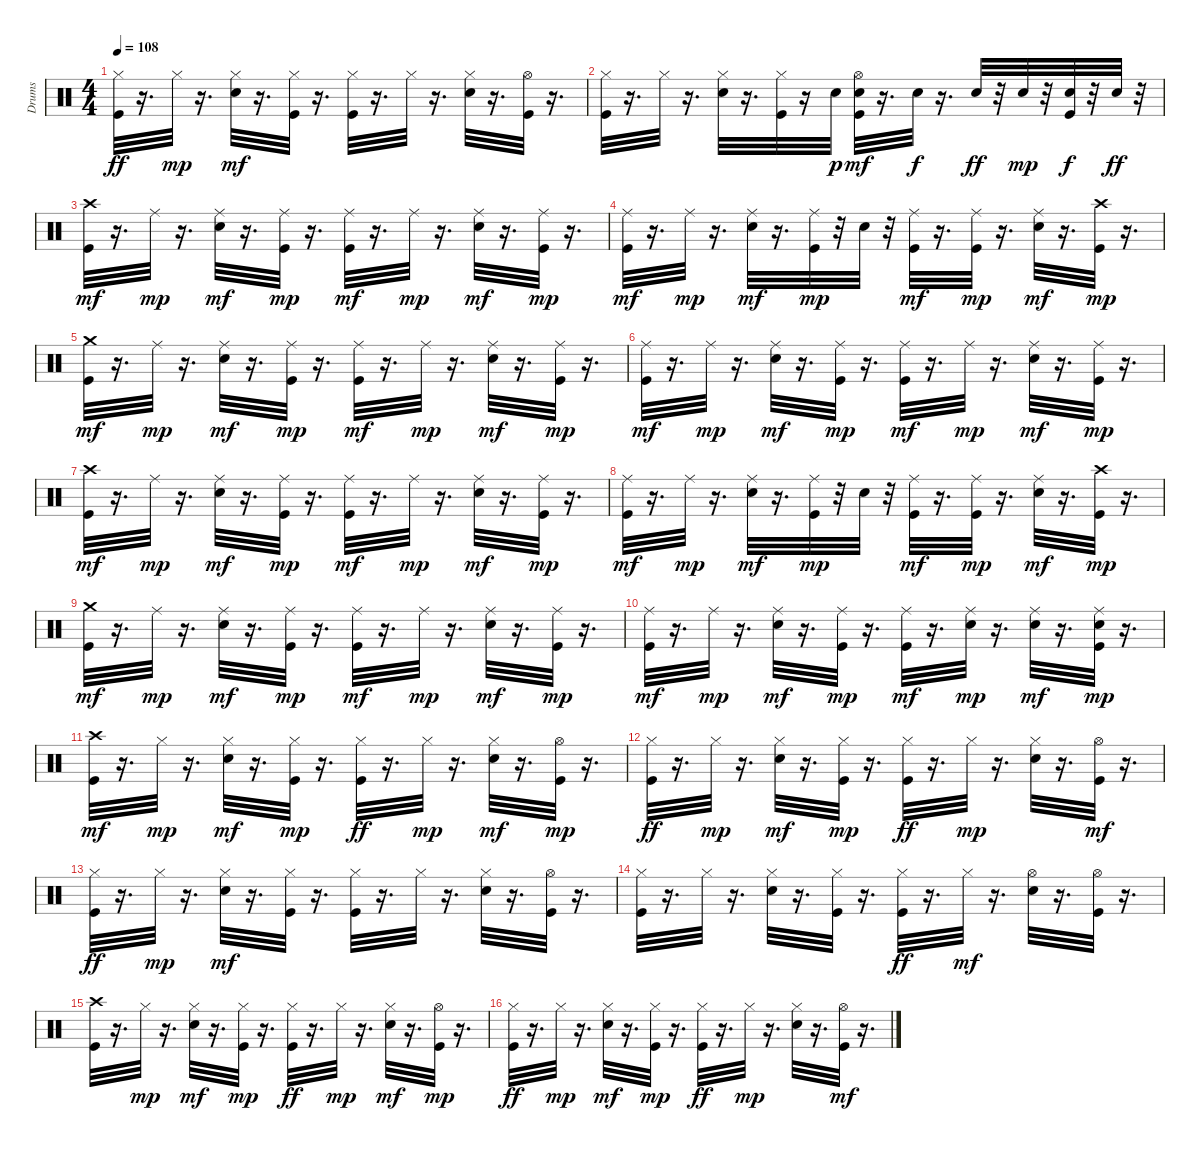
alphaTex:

\track ("Drums" "Drums") {instrument percussion}
\staff {score}
\articulation defaults
\ts (4 4)
\tempo 108
\clef neutral
\ks c
("Kick (hit)" "Hi-Hat (closed)").32{dy ff} r.16{d} "Hi-Hat (closed)".32{dy mp} r.16{d} ("Electric Snare (hit)" "Hi-Hat (closed)").32{dy mf} r.16{d} ("Kick (hit)" "Hi-Hat (closed)").32 r.16{d} ("Kick (hit)" "Hi-Hat (closed)").32 r.16{d} "Hi-Hat (closed)".32 r.16{d} ("Electric Snare (hit)" "Hi-Hat (closed)").32 r.16{d} ("Kick (hit)" "Hi-Hat (open)").32 r.16{d} |
("Kick (hit)" "Hi-Hat (closed)").32 r.16{d} "Hi-Hat (closed)".32 r.16{d} ("Electric Snare (hit)" "Hi-Hat (closed)").32 r.16{d} ("Kick (hit)" "Hi-Hat (closed)").32 r.16 "Electric Snare (hit)".32{dy p} ("Kick (hit)" "Electric Snare (hit)" "Hi-Hat (open)").32{dy mf} r.16{d} "Electric Snare (hit)".32{dy f} r.16{d} "Electric Snare (hit)".32{dy ff} r.32 "Electric Snare (hit)".32{dy mp} r.32 ("Kick (hit)" "Electric Snare (hit)").32{dy f} r.32 "Electric Snare (hit)".32{dy ff} r.32 |
("Kick (hit)" "Crash high (hit)").32{dy mf} r.16{d} "Ride (middle)".32{dy mp} r.16{d} ("Electric Snare (hit)" "Ride (middle)").32{dy mf} r.16{d} ("Kick (hit)" "Ride (middle)").32{dy mp} r.16{d} ("Kick (hit)" "Ride (middle)").32{dy mf} r.16{d} "Ride (middle)".32{dy mp} r.16{d} ("Electric Snare (hit)" "Ride (middle)").32{dy mf} r.16{d} ("Kick (hit)" "Ride (middle)").32{dy mp} r.16{d} |
("Kick (hit)" "Ride (middle)").32{dy mf} r.16{d} "Ride (middle)".32{dy mp} r.16{d} ("Electric Snare (hit)" "Ride (middle)").32{dy mf} r.16{d} ("Kick (hit)" "Ride (middle)").32{dy mp} r.32 "Electric Snare (hit)".32 r.32 ("Kick (hit)" "Ride (middle)").32{dy mf} r.16{d} ("Kick (hit)" "Ride (middle)").32{dy mp} r.16{d} ("Electric Snare (hit)" "Ride (middle)").32{dy mf} r.16{d} ("Kick (hit)" "Crash high (hit)").32{dy mp} r.16{d} |
("Kick (hit)" "Crash medium (hit)").32{dy mf} r.16{d} "Ride (middle)".32{dy mp} r.16{d} ("Electric Snare (hit)" "Ride (middle)").32{dy mf} r.16{d} ("Kick (hit)" "Ride (middle)").32{dy mp} r.16{d} ("Kick (hit)" "Ride (middle)").32{dy mf} r.16{d} "Ride (middle)".32{dy mp} r.16{d} ("Electric Snare (hit)" "Ride (middle)").32{dy mf} r.16{d} ("Kick (hit)" "Ride (middle)").32{dy mp} r.16{d} |
("Kick (hit)" "Ride (middle)").32{dy mf} r.16{d} "Ride (middle)".32{dy mp} r.16{d} ("Electric Snare (hit)" "Ride (middle)").32{dy mf} r.16{d} ("Kick (hit)" "Ride (middle)").32{dy mp} r.16{d} ("Kick (hit)" "Ride (middle)").32{dy mf} r.16{d} "Ride (middle)".32{dy mp} r.16{d} ("Electric Snare (hit)" "Ride (middle)").32{dy mf} r.16{d} ("Kick (hit)" "Ride (middle)").32{dy mp} r.16{d} |
("Kick (hit)" "Crash high (hit)").32{dy mf} r.16{d} "Ride (middle)".32{dy mp} r.16{d} ("Electric Snare (hit)" "Ride (middle)").32{dy mf} r.16{d} ("Kick (hit)" "Ride (middle)").32{dy mp} r.16{d} ("Kick (hit)" "Ride (middle)").32{dy mf} r.16{d} "Ride (middle)".32{dy mp} r.16{d} ("Electric Snare (hit)" "Ride (middle)").32{dy mf} r.16{d} ("Kick (hit)" "Ride (middle)").32{dy mp} r.16{d} |
("Kick (hit)" "Ride (middle)").32{dy mf} r.16{d} "Ride (middle)".32{dy mp} r.16{d} ("Electric Snare (hit)" "Ride (middle)").32{dy mf} r.16{d} ("Kick (hit)" "Ride (middle)").32{dy mp} r.32 "Electric Snare (hit)".32 r.32 ("Kick (hit)" "Ride (middle)").32{dy mf} r.16{d} ("Kick (hit)" "Ride (middle)").32{dy mp} r.16{d} ("Electric Snare (hit)" "Ride (middle)").32{dy mf} r.16{d} ("Kick (hit)" "Crash high (hit)").32{dy mp} r.16{d} |
("Kick (hit)" "Crash medium (hit)").32{dy mf} r.16{d} "Ride (middle)".32{dy mp} r.16{d} ("Electric Snare (hit)" "Ride (middle)").32{dy mf} r.16{d} ("Kick (hit)" "Ride (middle)").32{dy mp} r.16{d} ("Kick (hit)" "Ride (middle)").32{dy mf} r.16{d} "Ride (middle)".32{dy mp} r.16{d} ("Electric Snare (hit)" "Ride (middle)").32{dy mf} r.16{d} ("Kick (hit)" "Ride (middle)").32{dy mp} r.16{d} |
("Kick (hit)" "Ride (middle)").32{dy mf} r.16{d} "Ride (middle)".32{dy mp} r.16{d} ("Electric Snare (hit)" "Ride (middle)").32{dy mf} r.16{d} ("Kick (hit)" "Ride (middle)").32{dy mp} r.16{d} ("Kick (hit)" "Ride (middle)").32{dy mf} r.16{d} ("Electric Snare (hit)" "Ride (middle)").32{dy mp} r.16{d} ("Electric Snare (hit)" "Ride (middle)").32{dy mf} r.16{d} ("Kick (hit)" "Electric Snare (hit)" "Ride (middle)").32{dy mp} r.16{d} |
("Kick (hit)" "Crash high (hit)").32{dy mf} r.16{d} "Hi-Hat (closed)".32{dy mp} r.16{d} ("Electric Snare (hit)" "Hi-Hat (closed)").32{dy mf} r.16{d} ("Kick (hit)" "Hi-Hat (closed)").32{dy mp} r.16{d} ("Kick (hit)" "Hi-Hat (closed)").32{dy ff} r.16{d} "Hi-Hat (closed)".32{dy mp} r.16{d} ("Electric Snare (hit)" "Hi-Hat (closed)").32{dy mf} r.16{d} ("Kick (hit)" "Hi-Hat (open)").32{dy mp} r.16{d} |
("Kick (hit)" "Hi-Hat (closed)").32{dy ff} r.16{d} "Hi-Hat (closed)".32{dy mp} r.16{d} ("Electric Snare (hit)" "Hi-Hat (closed)").32{dy mf} r.16{d} ("Kick (hit)" "Hi-Hat (closed)").32{dy mp} r.16{d} ("Kick (hit)" "Hi-Hat (closed)").32{dy ff} r.16{d} "Hi-Hat (closed)".32{dy mp} r.16{d} ("Electric Snare (hit)" "Hi-Hat (closed)").32 r.16{d} ("Kick (hit)" "Hi-Hat (open)").32{dy mf} r.16{d} |
("Kick (hit)" "Hi-Hat (closed)").32{dy ff} r.16{d} "Hi-Hat (closed)".32{dy mp} r.16{d} ("Electric Snare (hit)" "Hi-Hat (closed)").32{dy mf} r.16{d} ("Kick (hit)" "Hi-Hat (closed)").32 r.16{d} ("Kick (hit)" "Hi-Hat (closed)").32 r.16{d} "Hi-Hat (closed)".32 r.16{d} ("Electric Snare (hit)" "Hi-Hat (closed)").32 r.16{d} ("Kick (hit)" "Hi-Hat (open)").32 r.16{d} |
("Kick (hit)" "Hi-Hat (closed)").32 r.16{d} "Hi-Hat (closed)".32 r.16{d} ("Electric Snare (hit)" "Hi-Hat (closed)").32 r.16{d} ("Kick (hit)" "Hi-Hat (closed)").32 r.16{d} ("Kick (hit)" "Hi-Hat (closed)").32{dy ff} r.16{d} "Hi-Hat (closed)".32{dy mf} r.16{d} ("Electric Snare (hit)" "Hi-Hat (open)").32 r.16{d} ("Kick (hit)" "Hi-Hat (open)").32 r.16{d} |
("Kick (hit)" "Crash high (hit)").32 r.16{d} "Hi-Hat (closed)".32{dy mp} r.16{d} ("Electric Snare (hit)" "Hi-Hat (closed)").32{dy mf} r.16{d} ("Kick (hit)" "Hi-Hat (closed)").32{dy mp} r.16{d} ("Kick (hit)" "Hi-Hat (closed)").32{dy ff} r.16{d} "Hi-Hat (closed)".32{dy mp} r.16{d} ("Electric Snare (hit)" "Hi-Hat (closed)").32{dy mf} r.16{d} ("Kick (hit)" "Hi-Hat (open)").32{dy mp} r.16{d} |
("Kick (hit)" "Hi-Hat (closed)").32{dy ff} r.16{d} "Hi-Hat (closed)".32{dy mp} r.16{d} ("Electric Snare (hit)" "Hi-Hat (closed)").32{dy mf} r.16{d} ("Kick (hit)" "Hi-Hat (closed)").32{dy mp} r.16{d} ("Kick (hit)" "Hi-Hat (closed)").32{dy ff} r.16{d} "Hi-Hat (closed)".32{dy mp} r.16{d} ("Electric Snare (hit)" "Hi-Hat (closed)").32 r.16{d} ("Kick (hit)" "Hi-Hat (open)").32{dy mf} r.16{d}
